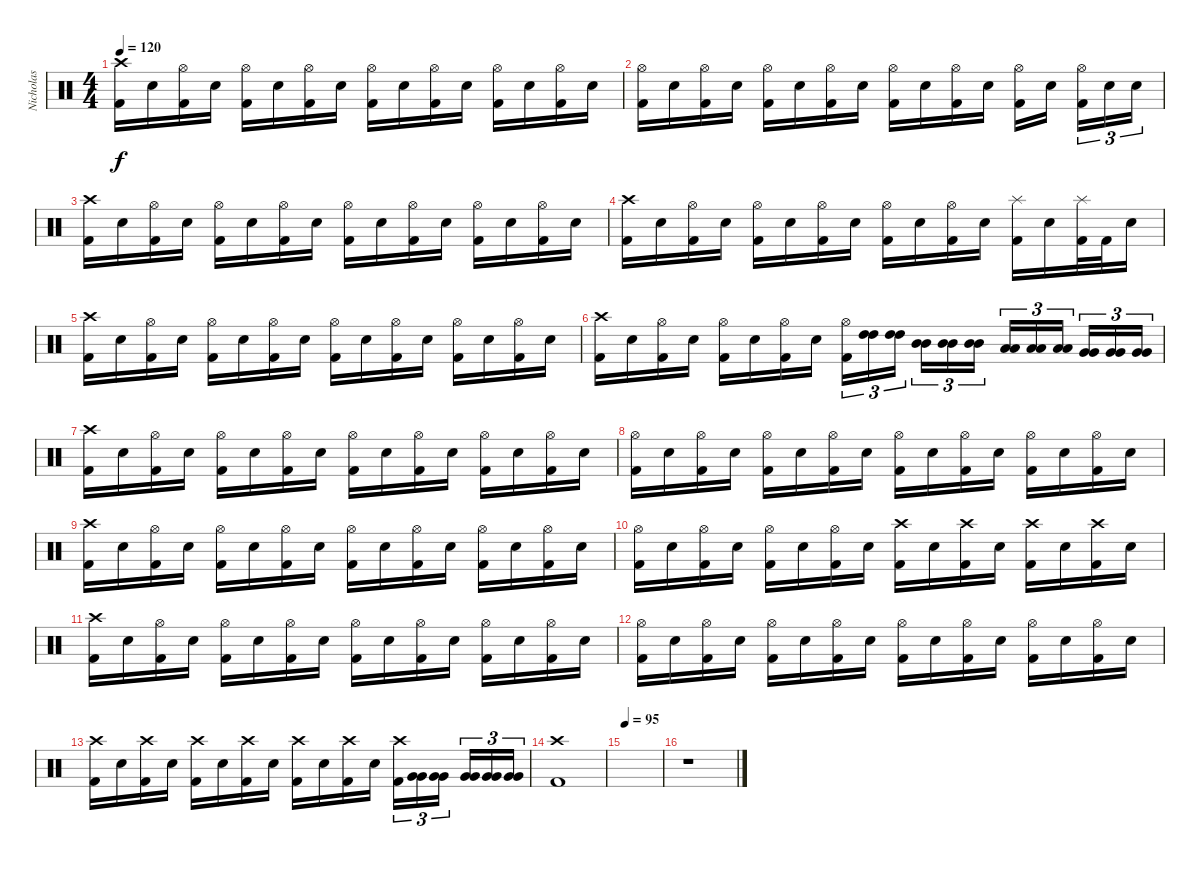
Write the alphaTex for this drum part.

\track ("Nicholas" "Nicholas") {instrument percussion}
\staff {score}
\articulation defaults
\ts (4 4)
\tempo 120
\clef neutral
\ks c
("Crash high (hit)" "Kick (hit) 2").16{dy f} "Electric Snare (hit)".16 ("Hi-Hat (open)" "Kick (hit) 2").16 "Electric Snare (hit)".16 ("Hi-Hat (open)" "Kick (hit) 2").16 "Electric Snare (hit)".16 ("Hi-Hat (open)" "Kick (hit) 2").16 "Electric Snare (hit)".16 ("Hi-Hat (open)" "Kick (hit) 2").16 "Electric Snare (hit)".16 ("Hi-Hat (open)" "Kick (hit) 2").16 "Electric Snare (hit)".16 ("Hi-Hat (open)" "Kick (hit) 2").16 "Electric Snare (hit)".16 ("Hi-Hat (open)" "Kick (hit) 2").16 "Electric Snare (hit)".16 |
("Hi-Hat (open)" "Kick (hit) 2").16 "Electric Snare (hit)".16 ("Hi-Hat (open)" "Kick (hit) 2").16 "Electric Snare (hit)".16 ("Hi-Hat (open)" "Kick (hit) 2").16 "Electric Snare (hit)".16 ("Hi-Hat (open)" "Kick (hit) 2").16 "Electric Snare (hit)".16 ("Hi-Hat (open)" "Kick (hit) 2").16 "Electric Snare (hit)".16 ("Hi-Hat (open)" "Kick (hit) 2").16 "Electric Snare (hit)".16 ("Hi-Hat (open)" "Kick (hit) 2").16 "Electric Snare (hit)".16 ("Hi-Hat (open)" "Kick (hit) 2").16{tu (3 2)} "Electric Snare (hit)".16{tu (3 2)} "Electric Snare (hit)".16{tu (3 2)} |
("Crash high (hit)" "Kick (hit) 2").16 "Electric Snare (hit)".16 ("Hi-Hat (open)" "Kick (hit) 2").16 "Electric Snare (hit)".16 ("Hi-Hat (open)" "Kick (hit) 2").16 "Electric Snare (hit)".16 ("Hi-Hat (open)" "Kick (hit) 2").16 "Electric Snare (hit)".16 ("Hi-Hat (open)" "Kick (hit) 2").16 "Electric Snare (hit)".16 ("Hi-Hat (open)" "Kick (hit) 2").16 "Electric Snare (hit)".16 ("Hi-Hat (open)" "Kick (hit) 2").16 "Electric Snare (hit)".16 ("Hi-Hat (open)" "Kick (hit) 2").16 "Electric Snare (hit)".16 |
("Crash high (hit)" "Kick (hit) 2").16 "Electric Snare (hit)".16 ("Hi-Hat (open)" "Kick (hit) 2").16 "Electric Snare (hit)".16 ("Hi-Hat (open)" "Kick (hit) 2").16 "Electric Snare (hit)".16 ("Hi-Hat (open)" "Kick (hit) 2").16 "Electric Snare (hit)".16 ("Hi-Hat (open)" "Kick (hit) 2").16 "Electric Snare (hit)".16 ("Hi-Hat (open)" "Kick (hit) 2").16 "Electric Snare (hit)".16 ("Splash (hit)" "Kick (hit) 2").16 "Electric Snare (hit)".16 ("Splash (hit)" "Kick (hit) 2").32 "Kick (hit) 2".32 "Electric Snare (hit)".16 |
("Crash high (hit)" "Kick (hit) 2").16 "Electric Snare (hit)".16 ("Hi-Hat (open)" "Kick (hit) 2").16 "Electric Snare (hit)".16 ("Hi-Hat (open)" "Kick (hit) 2").16 "Electric Snare (hit)".16 ("Hi-Hat (open)" "Kick (hit) 2").16 "Electric Snare (hit)".16 ("Hi-Hat (open)" "Kick (hit) 2").16 "Electric Snare (hit)".16 ("Hi-Hat (open)" "Kick (hit) 2").16 "Electric Snare (hit)".16 ("Hi-Hat (open)" "Kick (hit) 2").16 "Electric Snare (hit)".16 ("Hi-Hat (open)" "Kick (hit) 2").16 "Electric Snare (hit)".16 |
("Crash high (hit)" "Kick (hit) 2").16 "Electric Snare (hit)".16 ("Hi-Hat (open)" "Kick (hit) 2").16 "Electric Snare (hit)".16 ("Hi-Hat (open)" "Kick (hit) 2").16 "Electric Snare (hit)".16 ("Hi-Hat (open)" "Kick (hit) 2").16 "Electric Snare (hit)".16 ("Hi-Hat (open)" "Kick (hit) 2").16{tu (3 2)} ("High Tom (hit)" "High Tom (hit)").16{tu (3 2) balance 5} ("High Tom (hit)" "High Tom (hit)").16{tu (3 2)} ("Mid Tom (hit)" "Mid Tom (hit)").16{tu (3 2) balance 7} ("Mid Tom (hit)" "Mid Tom (hit)").16{tu (3 2)} ("Mid Tom (hit)" "Mid Tom (hit)").16{tu (3 2)} ("Low Tom (hit)" "Low Tom (hit)").16{tu (3 2) balance 9} ("Low Tom (hit)" "Low Tom (hit)").16{tu (3 2)} ("Low Tom (hit)" "Low Tom (hit)").16{tu (3 2)} ("Very Low Tom (hit)" "Very Low Tom (hit)").16{tu (3 2) balance 11} ("Very Low Tom (hit)" "Very Low Tom (hit)").16{tu (3 2)} ("Very Low Tom (hit)" "Very Low Tom (hit)").16{tu (3 2)} |
("Crash high (hit)" "Kick (hit) 2").16{balance 8} "Electric Snare (hit)".16 ("Hi-Hat (open)" "Kick (hit) 2").16 "Electric Snare (hit)".16 ("Hi-Hat (open)" "Kick (hit) 2").16 "Electric Snare (hit)".16 ("Hi-Hat (open)" "Kick (hit) 2").16 "Electric Snare (hit)".16 ("Hi-Hat (open)" "Kick (hit) 2").16 "Electric Snare (hit)".16 ("Hi-Hat (open)" "Kick (hit) 2").16 "Electric Snare (hit)".16 ("Hi-Hat (open)" "Kick (hit) 2").16 "Electric Snare (hit)".16 ("Hi-Hat (open)" "Kick (hit) 2").16 "Electric Snare (hit)".16 |
("Hi-Hat (open)" "Kick (hit) 2").16 "Electric Snare (hit)".16 ("Hi-Hat (open)" "Kick (hit) 2").16 "Electric Snare (hit)".16 ("Hi-Hat (open)" "Kick (hit) 2").16 "Electric Snare (hit)".16 ("Hi-Hat (open)" "Kick (hit) 2").16 "Electric Snare (hit)".16 ("Hi-Hat (open)" "Kick (hit) 2").16 "Electric Snare (hit)".16 ("Hi-Hat (open)" "Kick (hit) 2").16 "Electric Snare (hit)".16 ("Hi-Hat (open)" "Kick (hit) 2").16 "Electric Snare (hit)".16 ("Hi-Hat (open)" "Kick (hit) 2").16 "Electric Snare (hit)".16 |
("Crash high (hit)" "Kick (hit) 2").16 "Electric Snare (hit)".16 ("Hi-Hat (open)" "Kick (hit) 2").16 "Electric Snare (hit)".16 ("Hi-Hat (open)" "Kick (hit) 2").16 "Electric Snare (hit)".16 ("Hi-Hat (open)" "Kick (hit) 2").16 "Electric Snare (hit)".16 ("Hi-Hat (open)" "Kick (hit) 2").16 "Electric Snare (hit)".16 ("Hi-Hat (open)" "Kick (hit) 2").16 "Electric Snare (hit)".16 ("Hi-Hat (open)" "Kick (hit) 2").16 "Electric Snare (hit)".16 ("Hi-Hat (open)" "Kick (hit) 2").16 "Electric Snare (hit)".16 |
("Hi-Hat (open)" "Kick (hit) 2").16 "Electric Snare (hit)".16 ("Hi-Hat (open)" "Kick (hit) 2").16 "Electric Snare (hit)".16 ("Hi-Hat (open)" "Kick (hit) 2").16 "Electric Snare (hit)".16 ("Hi-Hat (open)" "Kick (hit) 2").16 "Electric Snare (hit)".16 ("Crash high (hit)" "Kick (hit) 2").16 "Electric Snare (hit)".16 ("Crash high (hit)" "Kick (hit) 2").16 "Electric Snare (hit)".16 ("Crash high (hit)" "Kick (hit) 2").16 "Electric Snare (hit)".16 ("Crash high (hit)" "Kick (hit) 2").16 "Electric Snare (hit)".16 |
("Crash high (hit)" "Kick (hit) 2").16 "Electric Snare (hit)".16 ("Hi-Hat (open)" "Kick (hit) 2").16 "Electric Snare (hit)".16 ("Hi-Hat (open)" "Kick (hit) 2").16 "Electric Snare (hit)".16 ("Hi-Hat (open)" "Kick (hit) 2").16 "Electric Snare (hit)".16 ("Hi-Hat (open)" "Kick (hit) 2").16 "Electric Snare (hit)".16 ("Hi-Hat (open)" "Kick (hit) 2").16 "Electric Snare (hit)".16 ("Hi-Hat (open)" "Kick (hit) 2").16 "Electric Snare (hit)".16 ("Hi-Hat (open)" "Kick (hit) 2").16 "Electric Snare (hit)".16 |
("Hi-Hat (open)" "Kick (hit) 2").16 "Electric Snare (hit)".16 ("Hi-Hat (open)" "Kick (hit) 2").16 "Electric Snare (hit)".16 ("Hi-Hat (open)" "Kick (hit) 2").16 "Electric Snare (hit)".16 ("Hi-Hat (open)" "Kick (hit) 2").16 "Electric Snare (hit)".16 ("Hi-Hat (open)" "Kick (hit) 2").16 "Electric Snare (hit)".16 ("Hi-Hat (open)" "Kick (hit) 2").16 "Electric Snare (hit)".16 ("Hi-Hat (open)" "Kick (hit) 2").16 "Electric Snare (hit)".16 ("Hi-Hat (open)" "Kick (hit) 2").16 "Electric Snare (hit)".16 |
("Crash high (hit)" "Kick (hit) 2").16 "Electric Snare (hit)".16 ("Crash high (hit)" "Kick (hit) 2").16 "Electric Snare (hit)".16 ("Crash high (hit)" "Kick (hit) 2").16 "Electric Snare (hit)".16 ("Crash high (hit)" "Kick (hit) 2").16 "Electric Snare (hit)".16 ("Crash high (hit)" "Kick (hit) 2").16 "Electric Snare (hit)".16 ("Crash high (hit)" "Kick (hit) 2").16 "Electric Snare (hit)".16 ("Crash high (hit)" "Kick (hit) 2").16{tu (3 2)} ("Very Low Tom (hit)" "Very Low Tom (hit)").16{tu (3 2) balance 13} ("Very Low Tom (hit)" "Very Low Tom (hit)").16{tu (3 2)} ("Very Low Tom (hit)" "Very Low Tom (hit)").16{tu (3 2)} ("Very Low Tom (hit)" "Very Low Tom (hit)").16{tu (3 2)} ("Very Low Tom (hit)" "Very Low Tom (hit)").16{tu (3 2)} |
("Crash high (hit)" "Kick (hit) 2").1{balance 8} |
\tempo 95
|
r.1
